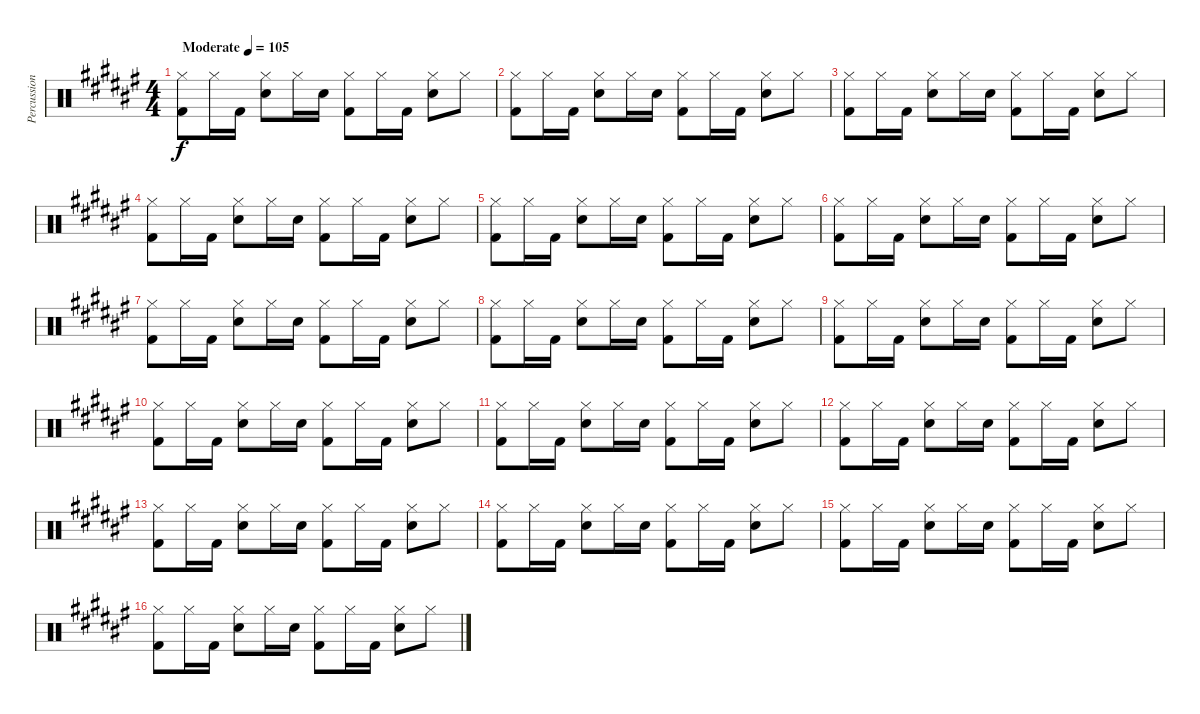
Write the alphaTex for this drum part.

\track ("Percussion" "Percussion") {instrument percussion}
\staff {score}
\articulation defaults
\ts (4 4)
\tempo (105 "Moderate")
\clef neutral
\ks d#minor
("Kick (hit) 2" "Hi-Hat (closed)").8{dy f} "Hi-Hat (closed)".16 "Kick (hit) 2".16 ("Electric Snare (hit)" "Hi-Hat (closed)").8 "Hi-Hat (closed)".16 "Electric Snare (hit)".16 ("Kick (hit) 2" "Hi-Hat (closed)").8 "Hi-Hat (closed)".16 "Kick (hit) 2".16 ("Electric Snare (hit)" "Hi-Hat (closed)").8 "Hi-Hat (closed)".8 |
("Kick (hit) 2" "Hi-Hat (closed)").8 "Hi-Hat (closed)".16 "Kick (hit) 2".16 ("Electric Snare (hit)" "Hi-Hat (closed)").8 "Hi-Hat (closed)".16 "Electric Snare (hit)".16 ("Kick (hit) 2" "Hi-Hat (closed)").8 "Hi-Hat (closed)".16 "Kick (hit) 2".16 ("Electric Snare (hit)" "Hi-Hat (closed)").8 "Hi-Hat (closed)".8 |
("Kick (hit) 2" "Hi-Hat (closed)").8 "Hi-Hat (closed)".16 "Kick (hit) 2".16 ("Electric Snare (hit)" "Hi-Hat (closed)").8 "Hi-Hat (closed)".16 "Electric Snare (hit)".16 ("Kick (hit) 2" "Hi-Hat (closed)").8 "Hi-Hat (closed)".16 "Kick (hit) 2".16 ("Electric Snare (hit)" "Hi-Hat (closed)").8 "Hi-Hat (closed)".8 |
("Kick (hit) 2" "Hi-Hat (closed)").8 "Hi-Hat (closed)".16 "Kick (hit) 2".16 ("Electric Snare (hit)" "Hi-Hat (closed)").8 "Hi-Hat (closed)".16 "Electric Snare (hit)".16 ("Kick (hit) 2" "Hi-Hat (closed)").8 "Hi-Hat (closed)".16 "Kick (hit) 2".16 ("Electric Snare (hit)" "Hi-Hat (closed)").8 "Hi-Hat (closed)".8 |
("Kick (hit) 2" "Hi-Hat (closed)").8 "Hi-Hat (closed)".16 "Kick (hit) 2".16 ("Electric Snare (hit)" "Hi-Hat (closed)").8 "Hi-Hat (closed)".16 "Electric Snare (hit)".16 ("Kick (hit) 2" "Hi-Hat (closed)").8 "Hi-Hat (closed)".16 "Kick (hit) 2".16 ("Electric Snare (hit)" "Hi-Hat (closed)").8 "Hi-Hat (closed)".8 |
("Kick (hit) 2" "Hi-Hat (closed)").8 "Hi-Hat (closed)".16 "Kick (hit) 2".16 ("Electric Snare (hit)" "Hi-Hat (closed)").8 "Hi-Hat (closed)".16 "Electric Snare (hit)".16 ("Kick (hit) 2" "Hi-Hat (closed)").8 "Hi-Hat (closed)".16 "Kick (hit) 2".16 ("Electric Snare (hit)" "Hi-Hat (closed)").8 "Hi-Hat (closed)".8 |
("Kick (hit) 2" "Hi-Hat (closed)").8 "Hi-Hat (closed)".16 "Kick (hit) 2".16 ("Electric Snare (hit)" "Hi-Hat (closed)").8 "Hi-Hat (closed)".16 "Electric Snare (hit)".16 ("Kick (hit) 2" "Hi-Hat (closed)").8 "Hi-Hat (closed)".16 "Kick (hit) 2".16 ("Electric Snare (hit)" "Hi-Hat (closed)").8 "Hi-Hat (closed)".8 |
("Kick (hit) 2" "Hi-Hat (closed)").8 "Hi-Hat (closed)".16 "Kick (hit) 2".16 ("Electric Snare (hit)" "Hi-Hat (closed)").8 "Hi-Hat (closed)".16 "Electric Snare (hit)".16 ("Kick (hit) 2" "Hi-Hat (closed)").8 "Hi-Hat (closed)".16 "Kick (hit) 2".16 ("Electric Snare (hit)" "Hi-Hat (closed)").8 "Hi-Hat (closed)".8 |
("Kick (hit) 2" "Hi-Hat (closed)").8 "Hi-Hat (closed)".16 "Kick (hit) 2".16 ("Electric Snare (hit)" "Hi-Hat (closed)").8 "Hi-Hat (closed)".16 "Electric Snare (hit)".16 ("Kick (hit) 2" "Hi-Hat (closed)").8 "Hi-Hat (closed)".16 "Kick (hit) 2".16 ("Electric Snare (hit)" "Hi-Hat (closed)").8 "Hi-Hat (closed)".8 |
("Kick (hit) 2" "Hi-Hat (closed)").8 "Hi-Hat (closed)".16 "Kick (hit) 2".16 ("Electric Snare (hit)" "Hi-Hat (closed)").8 "Hi-Hat (closed)".16 "Electric Snare (hit)".16 ("Kick (hit) 2" "Hi-Hat (closed)").8 "Hi-Hat (closed)".16 "Kick (hit) 2".16 ("Electric Snare (hit)" "Hi-Hat (closed)").8 "Hi-Hat (closed)".8 |
("Kick (hit) 2" "Hi-Hat (closed)").8 "Hi-Hat (closed)".16 "Kick (hit) 2".16 ("Electric Snare (hit)" "Hi-Hat (closed)").8 "Hi-Hat (closed)".16 "Electric Snare (hit)".16 ("Kick (hit) 2" "Hi-Hat (closed)").8 "Hi-Hat (closed)".16 "Kick (hit) 2".16 ("Electric Snare (hit)" "Hi-Hat (closed)").8 "Hi-Hat (closed)".8 |
("Kick (hit) 2" "Hi-Hat (closed)").8 "Hi-Hat (closed)".16 "Kick (hit) 2".16 ("Electric Snare (hit)" "Hi-Hat (closed)").8 "Hi-Hat (closed)".16 "Electric Snare (hit)".16 ("Kick (hit) 2" "Hi-Hat (closed)").8 "Hi-Hat (closed)".16 "Kick (hit) 2".16 ("Electric Snare (hit)" "Hi-Hat (closed)").8 "Hi-Hat (closed)".8 |
("Kick (hit) 2" "Hi-Hat (closed)").8 "Hi-Hat (closed)".16 "Kick (hit) 2".16 ("Electric Snare (hit)" "Hi-Hat (closed)").8 "Hi-Hat (closed)".16 "Electric Snare (hit)".16 ("Kick (hit) 2" "Hi-Hat (closed)").8 "Hi-Hat (closed)".16 "Kick (hit) 2".16 ("Electric Snare (hit)" "Hi-Hat (closed)").8 "Hi-Hat (closed)".8 |
("Kick (hit) 2" "Hi-Hat (closed)").8 "Hi-Hat (closed)".16 "Kick (hit) 2".16 ("Electric Snare (hit)" "Hi-Hat (closed)").8 "Hi-Hat (closed)".16 "Electric Snare (hit)".16 ("Kick (hit) 2" "Hi-Hat (closed)").8 "Hi-Hat (closed)".16 "Kick (hit) 2".16 ("Electric Snare (hit)" "Hi-Hat (closed)").8 "Hi-Hat (closed)".8 |
("Kick (hit) 2" "Hi-Hat (closed)").8 "Hi-Hat (closed)".16 "Kick (hit) 2".16 ("Electric Snare (hit)" "Hi-Hat (closed)").8 "Hi-Hat (closed)".16 "Electric Snare (hit)".16 ("Kick (hit) 2" "Hi-Hat (closed)").8 "Hi-Hat (closed)".16 "Kick (hit) 2".16 ("Electric Snare (hit)" "Hi-Hat (closed)").8 "Hi-Hat (closed)".8 |
("Kick (hit) 2" "Hi-Hat (closed)").8 "Hi-Hat (closed)".16 "Kick (hit) 2".16 ("Electric Snare (hit)" "Hi-Hat (closed)").8 "Hi-Hat (closed)".16 "Electric Snare (hit)".16 ("Kick (hit) 2" "Hi-Hat (closed)").8 "Hi-Hat (closed)".16 "Kick (hit) 2".16 ("Electric Snare (hit)" "Hi-Hat (closed)").8 "Hi-Hat (closed)".8
